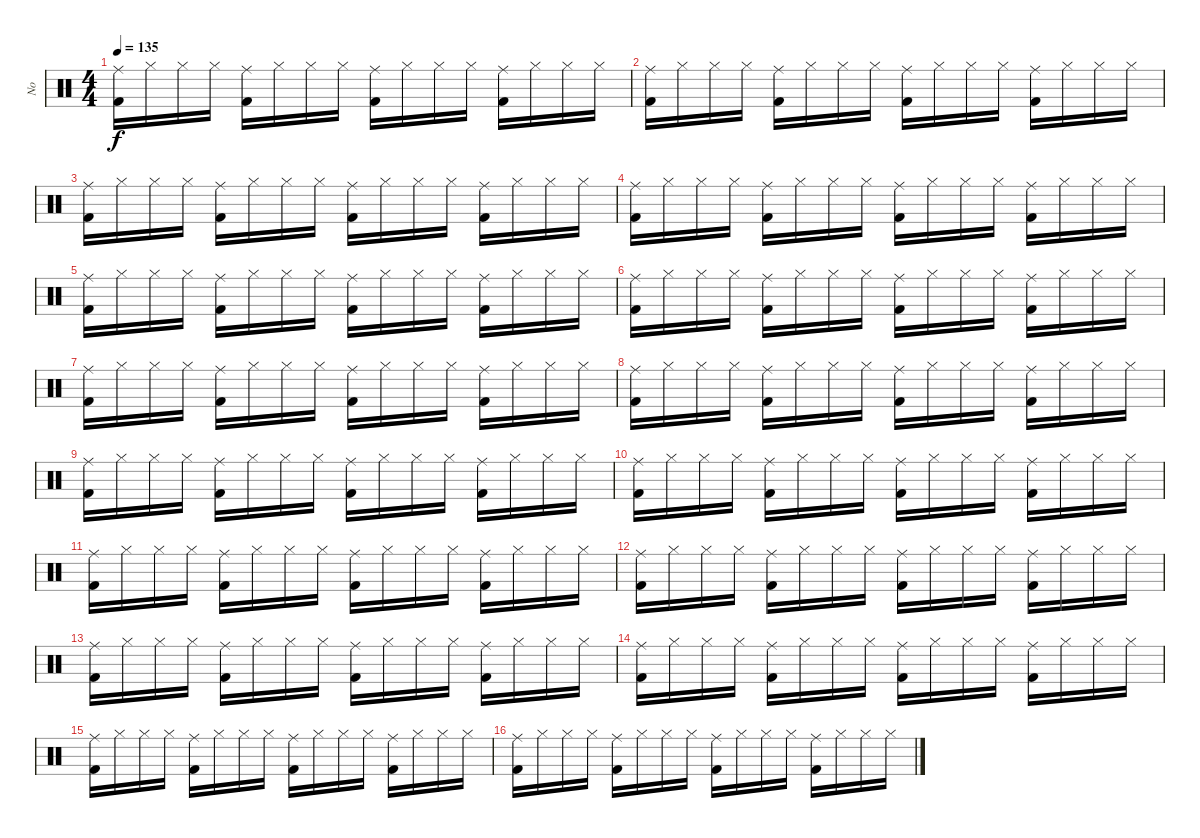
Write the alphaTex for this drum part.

\track ("No" "No") {instrument percussion}
\staff {score}
\articulation defaults
\ts (4 4)
\tempo 135
\clef neutral
\ks c
("Kick (hit) 2" "Ride (middle)").16{dy f} "Hi-Hat (closed)".16 "Hi-Hat (closed)".16 "Hi-Hat (closed)".16 ("Kick (hit) 2" "Ride (middle)").16 "Hi-Hat (closed)".16 "Hi-Hat (closed)".16 "Hi-Hat (closed)".16 ("Kick (hit) 2" "Ride (middle)").16 "Hi-Hat (closed)".16 "Hi-Hat (closed)".16 "Hi-Hat (closed)".16 ("Kick (hit) 2" "Ride (middle)").16 "Hi-Hat (closed)".16 "Hi-Hat (closed)".16 "Hi-Hat (closed)".16 |
("Kick (hit) 2" "Ride (middle)").16 "Hi-Hat (closed)".16 "Hi-Hat (closed)".16 "Hi-Hat (closed)".16 ("Kick (hit) 2" "Ride (middle)").16 "Hi-Hat (closed)".16 "Hi-Hat (closed)".16 "Hi-Hat (closed)".16 ("Kick (hit) 2" "Ride (middle)").16 "Hi-Hat (closed)".16 "Hi-Hat (closed)".16 "Hi-Hat (closed)".16 ("Kick (hit) 2" "Ride (middle)").16 "Hi-Hat (closed)".16 "Hi-Hat (closed)".16 "Hi-Hat (closed)".16 |
("Kick (hit) 2" "Ride (middle)").16 "Hi-Hat (closed)".16 "Hi-Hat (closed)".16 "Hi-Hat (closed)".16 ("Kick (hit) 2" "Ride (middle)").16 "Hi-Hat (closed)".16 "Hi-Hat (closed)".16 "Hi-Hat (closed)".16 ("Kick (hit) 2" "Ride (middle)").16 "Hi-Hat (closed)".16 "Hi-Hat (closed)".16 "Hi-Hat (closed)".16 ("Kick (hit) 2" "Ride (middle)").16 "Hi-Hat (closed)".16 "Hi-Hat (closed)".16 "Hi-Hat (closed)".16 |
("Kick (hit) 2" "Ride (middle)").16 "Hi-Hat (closed)".16 "Hi-Hat (closed)".16 "Hi-Hat (closed)".16 ("Kick (hit) 2" "Ride (middle)").16 "Hi-Hat (closed)".16 "Hi-Hat (closed)".16 "Hi-Hat (closed)".16 ("Kick (hit) 2" "Ride (middle)").16 "Hi-Hat (closed)".16 "Hi-Hat (closed)".16 "Hi-Hat (closed)".16 ("Kick (hit) 2" "Ride (middle)").16 "Hi-Hat (closed)".16 "Hi-Hat (closed)".16 "Hi-Hat (closed)".16 |
("Kick (hit) 2" "Ride (middle)").16 "Hi-Hat (closed)".16 "Hi-Hat (closed)".16 "Hi-Hat (closed)".16 ("Kick (hit) 2" "Ride (middle)").16 "Hi-Hat (closed)".16 "Hi-Hat (closed)".16 "Hi-Hat (closed)".16 ("Kick (hit) 2" "Ride (middle)").16 "Hi-Hat (closed)".16 "Hi-Hat (closed)".16 "Hi-Hat (closed)".16 ("Kick (hit) 2" "Ride (middle)").16 "Hi-Hat (closed)".16 "Hi-Hat (closed)".16 "Hi-Hat (closed)".16 |
("Kick (hit) 2" "Ride (middle)").16 "Hi-Hat (closed)".16 "Hi-Hat (closed)".16 "Hi-Hat (closed)".16 ("Kick (hit) 2" "Ride (middle)").16 "Hi-Hat (closed)".16 "Hi-Hat (closed)".16 "Hi-Hat (closed)".16 ("Kick (hit) 2" "Ride (middle)").16 "Hi-Hat (closed)".16 "Hi-Hat (closed)".16 "Hi-Hat (closed)".16 ("Kick (hit) 2" "Ride (middle)").16 "Hi-Hat (closed)".16 "Hi-Hat (closed)".16 "Hi-Hat (closed)".16 |
("Kick (hit) 2" "Ride (middle)").16 "Hi-Hat (closed)".16 "Hi-Hat (closed)".16 "Hi-Hat (closed)".16 ("Kick (hit) 2" "Ride (middle)").16 "Hi-Hat (closed)".16 "Hi-Hat (closed)".16 "Hi-Hat (closed)".16 ("Kick (hit) 2" "Ride (middle)").16 "Hi-Hat (closed)".16 "Hi-Hat (closed)".16 "Hi-Hat (closed)".16 ("Kick (hit) 2" "Ride (middle)").16 "Hi-Hat (closed)".16 "Hi-Hat (closed)".16 "Hi-Hat (closed)".16 |
("Kick (hit) 2" "Ride (middle)").16 "Hi-Hat (closed)".16 "Hi-Hat (closed)".16 "Hi-Hat (closed)".16 ("Kick (hit) 2" "Ride (middle)").16 "Hi-Hat (closed)".16 "Hi-Hat (closed)".16 "Hi-Hat (closed)".16 ("Kick (hit) 2" "Ride (middle)").16 "Hi-Hat (closed)".16 "Hi-Hat (closed)".16 "Hi-Hat (closed)".16 ("Kick (hit) 2" "Ride (middle)").16 "Hi-Hat (closed)".16 "Hi-Hat (closed)".16 "Hi-Hat (closed)".16 |
("Kick (hit) 2" "Ride (middle)").16 "Hi-Hat (closed)".16 "Hi-Hat (closed)".16 "Hi-Hat (closed)".16 ("Kick (hit) 2" "Ride (middle)").16 "Hi-Hat (closed)".16 "Hi-Hat (closed)".16 "Hi-Hat (closed)".16 ("Kick (hit) 2" "Ride (middle)").16 "Hi-Hat (closed)".16 "Hi-Hat (closed)".16 "Hi-Hat (closed)".16 ("Kick (hit) 2" "Ride (middle)").16 "Hi-Hat (closed)".16 "Hi-Hat (closed)".16 "Hi-Hat (closed)".16 |
("Kick (hit) 2" "Ride (middle)").16 "Hi-Hat (closed)".16 "Hi-Hat (closed)".16 "Hi-Hat (closed)".16 ("Kick (hit) 2" "Ride (middle)").16 "Hi-Hat (closed)".16 "Hi-Hat (closed)".16 "Hi-Hat (closed)".16 ("Kick (hit) 2" "Ride (middle)").16 "Hi-Hat (closed)".16 "Hi-Hat (closed)".16 "Hi-Hat (closed)".16 ("Kick (hit) 2" "Ride (middle)").16 "Hi-Hat (closed)".16 "Hi-Hat (closed)".16 "Hi-Hat (closed)".16 |
("Kick (hit) 2" "Ride (middle)").16 "Hi-Hat (closed)".16 "Hi-Hat (closed)".16 "Hi-Hat (closed)".16 ("Kick (hit) 2" "Ride (middle)").16 "Hi-Hat (closed)".16 "Hi-Hat (closed)".16 "Hi-Hat (closed)".16 ("Kick (hit) 2" "Ride (middle)").16 "Hi-Hat (closed)".16 "Hi-Hat (closed)".16 "Hi-Hat (closed)".16 ("Kick (hit) 2" "Ride (middle)").16 "Hi-Hat (closed)".16 "Hi-Hat (closed)".16 "Hi-Hat (closed)".16 |
("Kick (hit) 2" "Ride (middle)").16 "Hi-Hat (closed)".16 "Hi-Hat (closed)".16 "Hi-Hat (closed)".16 ("Kick (hit) 2" "Ride (middle)").16 "Hi-Hat (closed)".16 "Hi-Hat (closed)".16 "Hi-Hat (closed)".16 ("Kick (hit) 2" "Ride (middle)").16 "Hi-Hat (closed)".16 "Hi-Hat (closed)".16 "Hi-Hat (closed)".16 ("Kick (hit) 2" "Ride (middle)").16 "Hi-Hat (closed)".16 "Hi-Hat (closed)".16 "Hi-Hat (closed)".16 |
("Kick (hit) 2" "Ride (middle)").16 "Hi-Hat (closed)".16 "Hi-Hat (closed)".16 "Hi-Hat (closed)".16 ("Kick (hit) 2" "Ride (middle)").16 "Hi-Hat (closed)".16 "Hi-Hat (closed)".16 "Hi-Hat (closed)".16 ("Kick (hit) 2" "Ride (middle)").16 "Hi-Hat (closed)".16 "Hi-Hat (closed)".16 "Hi-Hat (closed)".16 ("Kick (hit) 2" "Ride (middle)").16 "Hi-Hat (closed)".16 "Hi-Hat (closed)".16 "Hi-Hat (closed)".16 |
("Kick (hit) 2" "Ride (middle)").16 "Hi-Hat (closed)".16 "Hi-Hat (closed)".16 "Hi-Hat (closed)".16 ("Kick (hit) 2" "Ride (middle)").16 "Hi-Hat (closed)".16 "Hi-Hat (closed)".16 "Hi-Hat (closed)".16 ("Kick (hit) 2" "Ride (middle)").16 "Hi-Hat (closed)".16 "Hi-Hat (closed)".16 "Hi-Hat (closed)".16 ("Kick (hit) 2" "Ride (middle)").16 "Hi-Hat (closed)".16 "Hi-Hat (closed)".16 "Hi-Hat (closed)".16 |
("Kick (hit) 2" "Ride (middle)").16 "Hi-Hat (closed)".16 "Hi-Hat (closed)".16 "Hi-Hat (closed)".16 ("Kick (hit) 2" "Ride (middle)").16 "Hi-Hat (closed)".16 "Hi-Hat (closed)".16 "Hi-Hat (closed)".16 ("Kick (hit) 2" "Ride (middle)").16 "Hi-Hat (closed)".16 "Hi-Hat (closed)".16 "Hi-Hat (closed)".16 ("Kick (hit) 2" "Ride (middle)").16 "Hi-Hat (closed)".16 "Hi-Hat (closed)".16 "Hi-Hat (closed)".16 |
("Kick (hit) 2" "Ride (middle)").16 "Hi-Hat (closed)".16 "Hi-Hat (closed)".16 "Hi-Hat (closed)".16 ("Kick (hit) 2" "Ride (middle)").16 "Hi-Hat (closed)".16 "Hi-Hat (closed)".16 "Hi-Hat (closed)".16 ("Kick (hit) 2" "Ride (middle)").16 "Hi-Hat (closed)".16 "Hi-Hat (closed)".16 "Hi-Hat (closed)".16 ("Kick (hit) 2" "Ride (middle)").16 "Hi-Hat (closed)".16 "Hi-Hat (closed)".16 "Hi-Hat (closed)".16
